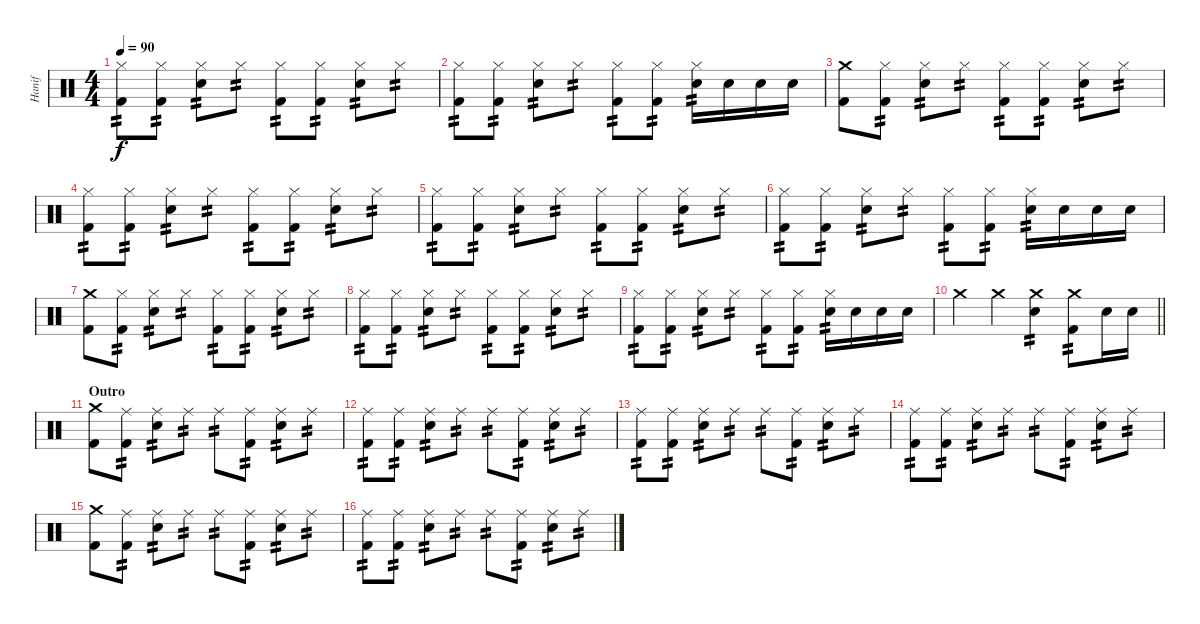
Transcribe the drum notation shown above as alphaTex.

\track ("Hanif" "Hanif") {instrument percussion}
\staff {score}
\articulation defaults
\ts (4 4)
\tempo 90
\clef neutral
\ks c
("Hi-Hat (closed)" "Kick (hit) 2").8{tp 2 dy f} ("Hi-Hat (closed)" "Kick (hit) 2").8{tp 2} ("Hi-Hat (closed)" "Snare (hit) 2").8{tp 2} "Hi-Hat (closed)".8{tp 2} ("Hi-Hat (closed)" "Kick (hit) 2").8{tp 2} ("Hi-Hat (closed)" "Kick (hit) 2").8{tp 2} ("Hi-Hat (closed)" "Snare (hit) 2").8{tp 2} "Hi-Hat (closed)".8{tp 2} |
("Hi-Hat (closed)" "Kick (hit) 2").8{tp 2} ("Hi-Hat (closed)" "Kick (hit) 2").8{tp 2} ("Hi-Hat (closed)" "Snare (hit) 2").8{tp 2} "Hi-Hat (closed)".8{tp 2} ("Hi-Hat (closed)" "Kick (hit) 2").8{tp 2} ("Hi-Hat (closed)" "Kick (hit) 2").8{tp 2} ("Hi-Hat (closed)" "Snare (hit) 2").16{tp 2} "Snare (hit) 2".16 "Snare (hit) 2".16 "Snare (hit) 2".16 |
("Crash medium (hit)" "Kick (hit) 2").8 ("Hi-Hat (closed)" "Kick (hit) 2").8{tp 2} ("Hi-Hat (closed)" "Snare (hit) 2").8{tp 2} "Hi-Hat (closed)".8{tp 2} ("Hi-Hat (closed)" "Kick (hit) 2").8{tp 2} ("Hi-Hat (closed)" "Kick (hit) 2").8{tp 2} ("Hi-Hat (closed)" "Snare (hit) 2").8{tp 2} "Hi-Hat (closed)".8{tp 2} |
("Hi-Hat (closed)" "Kick (hit) 2").8{tp 2} ("Hi-Hat (closed)" "Kick (hit) 2").8{tp 2} ("Hi-Hat (closed)" "Snare (hit) 2").8{tp 2} "Hi-Hat (closed)".8{tp 2} ("Hi-Hat (closed)" "Kick (hit) 2").8{tp 2} ("Hi-Hat (closed)" "Kick (hit) 2").8{tp 2} ("Hi-Hat (closed)" "Snare (hit) 2").8{tp 2} "Hi-Hat (closed)".8{tp 2} |
("Hi-Hat (closed)" "Kick (hit) 2").8{tp 2} ("Hi-Hat (closed)" "Kick (hit) 2").8{tp 2} ("Hi-Hat (closed)" "Snare (hit) 2").8{tp 2} "Hi-Hat (closed)".8{tp 2} ("Hi-Hat (closed)" "Kick (hit) 2").8{tp 2} ("Hi-Hat (closed)" "Kick (hit) 2").8{tp 2} ("Hi-Hat (closed)" "Snare (hit) 2").8{tp 2} "Hi-Hat (closed)".8{tp 2} |
("Hi-Hat (closed)" "Kick (hit) 2").8{tp 2} ("Hi-Hat (closed)" "Kick (hit) 2").8{tp 2} ("Hi-Hat (closed)" "Snare (hit) 2").8{tp 2} "Hi-Hat (closed)".8{tp 2} ("Hi-Hat (closed)" "Kick (hit) 2").8{tp 2} ("Hi-Hat (closed)" "Kick (hit) 2").8{tp 2} ("Hi-Hat (closed)" "Snare (hit) 2").16{tp 2} "Snare (hit) 2".16 "Snare (hit) 2".16 "Snare (hit) 2".16 |
("Crash medium (hit)" "Kick (hit) 2").8 ("Hi-Hat (closed)" "Kick (hit) 2").8{tp 2} ("Hi-Hat (closed)" "Snare (hit) 2").8{tp 2} "Hi-Hat (closed)".8{tp 2} ("Hi-Hat (closed)" "Kick (hit) 2").8{tp 2} ("Hi-Hat (closed)" "Kick (hit) 2").8{tp 2} ("Hi-Hat (closed)" "Snare (hit) 2").8{tp 2} "Hi-Hat (closed)".8{tp 2} |
("Hi-Hat (closed)" "Kick (hit) 2").8{tp 2} ("Hi-Hat (closed)" "Kick (hit) 2").8{tp 2} ("Hi-Hat (closed)" "Snare (hit) 2").8{tp 2} "Hi-Hat (closed)".8{tp 2} ("Hi-Hat (closed)" "Kick (hit) 2").8{tp 2} ("Hi-Hat (closed)" "Kick (hit) 2").8{tp 2} ("Hi-Hat (closed)" "Snare (hit) 2").8{tp 2} "Hi-Hat (closed)".8{tp 2} |
("Hi-Hat (closed)" "Kick (hit) 2").8{tp 2} ("Hi-Hat (closed)" "Kick (hit) 2").8{tp 2} ("Hi-Hat (closed)" "Snare (hit) 2").8{tp 2} "Hi-Hat (closed)".8{tp 2} ("Hi-Hat (closed)" "Kick (hit) 2").8{tp 2} ("Hi-Hat (closed)" "Kick (hit) 2").8{tp 2} ("Hi-Hat (closed)" "Snare (hit) 2").16{tp 2} "Snare (hit) 2".16 "Snare (hit) 2".16 "Snare (hit) 2".16 |
\barLineRight lightlight "Crash medium (hit)".4 "Crash medium (hit)".4
("Crash medium (hit)" "Snare (hit) 2").4{tp 2} ("Crash medium (hit)" "Kick (hit) 2").8{tp 2} "Snare (hit) 2".16 "Snare (hit) 2".16 |
\section ("" "Outro")
("Crash medium (hit)" "Kick (hit) 2").8 ("Ride (middle)" "Kick (hit) 2").8{tp 2} ("Ride (middle)" "Snare (hit) 2").8{tp 2} "Ride (middle)".8{tp 2} "Ride (middle)".8{tp 2} ("Ride (middle)" "Kick (hit) 2").8{tp 2} ("Ride (middle)" "Snare (hit) 2").8{tp 2} "Ride (middle)".8{tp 2} |
("Ride (middle)" "Kick (hit) 2").8{tp 2} ("Ride (middle)" "Kick (hit) 2").8{tp 2} ("Ride (middle)" "Snare (hit) 2").8{tp 2} "Ride (middle)".8{tp 2} "Ride (middle)".8{tp 2} ("Ride (middle)" "Kick (hit) 2").8{tp 2} ("Ride (middle)" "Snare (hit) 2").8{tp 2} "Ride (middle)".8{tp 2} |
("Ride (middle)" "Kick (hit) 2").8{tp 2} ("Ride (middle)" "Kick (hit) 2").8{tp 2} ("Ride (middle)" "Snare (hit) 2").8{tp 2} "Ride (middle)".8{tp 2} "Ride (middle)".8{tp 2} ("Ride (middle)" "Kick (hit) 2").8{tp 2} ("Ride (middle)" "Snare (hit) 2").8{tp 2} "Ride (middle)".8{tp 2} |
("Ride (middle)" "Kick (hit) 2").8{tp 2} ("Ride (middle)" "Kick (hit) 2").8{tp 2} ("Ride (middle)" "Snare (hit) 2").8{tp 2} "Ride (middle)".8{tp 2} "Ride (middle)".8{tp 2} ("Ride (middle)" "Kick (hit) 2").8{tp 2} ("Ride (middle)" "Snare (hit) 2").8{tp 2} "Ride (middle)".8{tp 2} |
("Crash medium (hit)" "Kick (hit) 2").8 ("Ride (middle)" "Kick (hit) 2").8{tp 2} ("Ride (middle)" "Snare (hit) 2").8{tp 2} "Ride (middle)".8{tp 2} "Ride (middle)".8{tp 2} ("Ride (middle)" "Kick (hit) 2").8{tp 2} ("Ride (middle)" "Snare (hit) 2").8{tp 2} "Ride (middle)".8{tp 2} |
("Ride (middle)" "Kick (hit) 2").8{tp 2} ("Ride (middle)" "Kick (hit) 2").8{tp 2} ("Ride (middle)" "Snare (hit) 2").8{tp 2} "Ride (middle)".8{tp 2} "Ride (middle)".8{tp 2} ("Ride (middle)" "Kick (hit) 2").8{tp 2} ("Ride (middle)" "Snare (hit) 2").8{tp 2} "Ride (middle)".8{tp 2}
